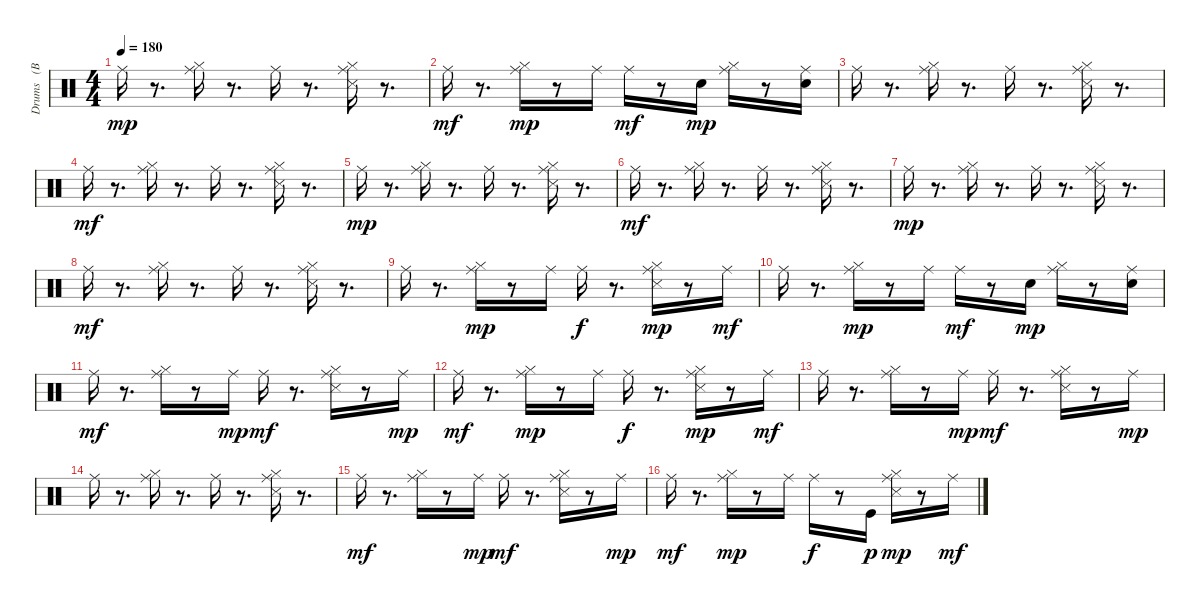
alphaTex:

\track ("Drums   (BB)" "Drums   (B") {instrument percussion}
\staff {score}
\articulation defaults
\ts (4 4)
\tempo 180
\clef neutral
\ks c "Ride (middle)".16{dy mp}
r.8{d} ("Hi-Hat (closed)" "Ride (middle)").16 r.8{d} "Ride (middle)".16 r.8{d} ("Hi-Hat (closed)" "Snare (side stick) 3" "Ride (middle)").16 r.8{d} |
"Ride (middle)".16{dy mf} r.8{d} ("Hi-Hat (closed)" "Ride (middle)").16{dy mp} r.8 "Ride (middle)".16 "Ride (middle)".16{dy mf} r.8 "Snare (hit) 2".16{dy mp} ("Hi-Hat (closed)" "Ride (middle)").16 r.8 ("Snare (hit) 2" "Ride (middle)").16 |
"Ride (middle)".16 r.8{d} ("Hi-Hat (closed)" "Ride (middle)").16 r.8{d} "Ride (middle)".16 r.8{d} ("Hi-Hat (closed)" "Snare (side stick) 3" "Ride (middle)").16 r.8{d} |
"Ride (middle)".16{dy mf} r.8{d} ("Hi-Hat (closed)" "Ride (middle)").16 r.8{d} "Ride (middle)".16 r.8{d} ("Hi-Hat (closed)" "Snare (side stick) 3" "Ride (middle)").16 r.8{d} |
"Ride (middle)".16{dy mp} r.8{d} ("Hi-Hat (closed)" "Ride (middle)").16 r.8{d} "Ride (middle)".16 r.8{d} ("Hi-Hat (closed)" "Snare (side stick) 3" "Ride (middle)").16 r.8{d} |
"Ride (middle)".16{dy mf} r.8{d} ("Hi-Hat (closed)" "Ride (middle)").16 r.8{d} "Ride (middle)".16 r.8{d} ("Hi-Hat (closed)" "Snare (side stick) 3" "Ride (middle)").16 r.8{d} |
"Ride (middle)".16{dy mp} r.8{d} ("Hi-Hat (closed)" "Ride (middle)").16 r.8{d} "Ride (middle)".16 r.8{d} ("Hi-Hat (closed)" "Snare (side stick) 3" "Ride (middle)").16 r.8{d} |
"Ride (middle)".16{dy mf} r.8{d} ("Hi-Hat (closed)" "Ride (middle)").16 r.8{d} "Ride (middle)".16 r.8{d} ("Hi-Hat (closed)" "Snare (side stick) 3" "Ride (middle)").16 r.8{d} |
"Ride (middle)".16 r.8{d} ("Hi-Hat (closed)" "Ride (middle)").16{dy mp} r.8 "Ride (middle)".16 "Ride (middle)".16{dy f} r.8{d} ("Hi-Hat (closed)" "Snare (side stick) 3" "Ride (middle)").16{dy mp} r.8 "Ride (middle)".16{dy mf} |
"Ride (middle)".16 r.8{d} ("Hi-Hat (closed)" "Ride (middle)").16{dy mp} r.8 "Ride (middle)".16 "Ride (middle)".16{dy mf} r.8 "Snare (hit) 2".16{dy mp} ("Hi-Hat (closed)" "Ride (middle)").16 r.8 ("Snare (hit) 2" "Ride (middle)").16 |
"Ride (middle)".16{dy mf} r.8{d} ("Hi-Hat (closed)" "Ride (middle)").16 r.8 "Ride (middle)".16{dy mp} "Ride (middle)".16{dy mf} r.8{d} ("Hi-Hat (closed)" "Snare (side stick) 3" "Ride (middle)").16 r.8 "Ride (middle)".16{dy mp} |
"Ride (middle)".16{dy mf} r.8{d} ("Hi-Hat (closed)" "Ride (middle)").16{dy mp} r.8 "Ride (middle)".16 "Ride (middle)".16{dy f} r.8{d} ("Hi-Hat (closed)" "Snare (side stick) 3" "Ride (middle)").16{dy mp} r.8 "Ride (middle)".16{dy mf} |
"Ride (middle)".16 r.8{d} ("Hi-Hat (closed)" "Ride (middle)").16 r.8 "Ride (middle)".16{dy mp} "Ride (middle)".16{dy mf} r.8{d} ("Hi-Hat (closed)" "Snare (side stick) 3" "Ride (middle)").16 r.8 "Ride (middle)".16{dy mp} |
"Ride (middle)".16 r.8{d} ("Hi-Hat (closed)" "Ride (middle)").16 r.8{d} "Ride (middle)".16 r.8{d} ("Hi-Hat (closed)" "Snare (side stick) 3" "Ride (middle)").16 r.8{d} |
"Ride (middle)".16{dy mf} r.8{d} ("Hi-Hat (closed)" "Ride (middle)").16 r.8 "Ride (middle)".16{dy mp} "Ride (middle)".16{dy mf} r.8{d} ("Hi-Hat (closed)" "Snare (side stick) 3" "Ride (middle)").16 r.8 "Ride (middle)".16{dy mp} |
"Ride (middle)".16{dy mf} r.8{d} ("Hi-Hat (closed)" "Ride (middle)").16{dy mp} r.8 "Ride (middle)".16 "Ride (middle)".16{dy f} r.8 "Kick (hit)".16{dy p} ("Hi-Hat (closed)" "Snare (side stick) 3" "Ride (middle)").16{dy mp} r.8 "Ride (middle)".16{dy mf}
